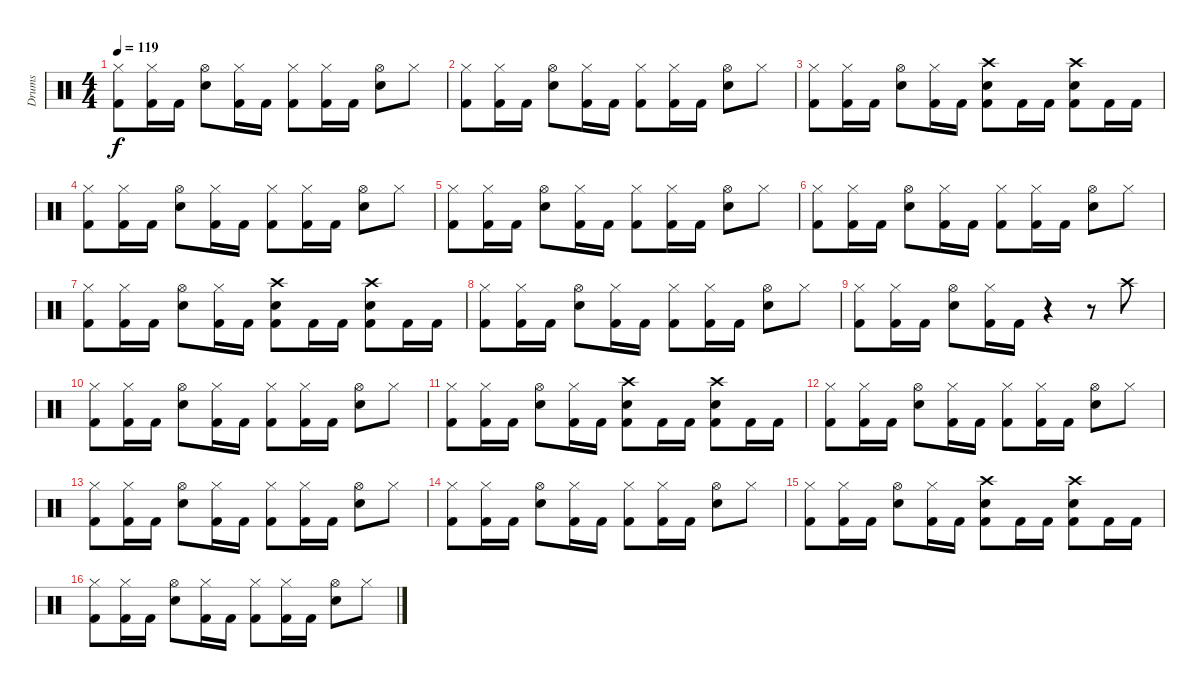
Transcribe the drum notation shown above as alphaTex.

\track ("Drums" "Drums") {instrument percussion}
\staff {score}
\articulation defaults
\ts (4 4)
\tempo 119
\clef neutral
\ks c
("Hi-Hat (closed)" "Kick (hit) 2").8{dy f} ("Hi-Hat (closed)" "Kick (hit) 2").16 "Kick (hit) 2".16 ("Hi-Hat (open)" "Snare (hit) 2").8 ("Hi-Hat (closed)" "Kick (hit) 2").16 "Kick (hit) 2".16 ("Hi-Hat (closed)" "Kick (hit) 2").8 ("Hi-Hat (closed)" "Kick (hit) 2").16 "Kick (hit) 2".16 ("Hi-Hat (open)" "Snare (hit) 2").8 "Hi-Hat (closed)".8 |
("Hi-Hat (closed)" "Kick (hit) 2").8 ("Hi-Hat (closed)" "Kick (hit) 2").16 "Kick (hit) 2".16 ("Hi-Hat (open)" "Snare (hit) 2").8 ("Hi-Hat (closed)" "Kick (hit) 2").16 "Kick (hit) 2".16 ("Hi-Hat (closed)" "Kick (hit) 2").8 ("Hi-Hat (closed)" "Kick (hit) 2").16 "Kick (hit) 2".16 ("Hi-Hat (open)" "Snare (hit) 2").8 "Hi-Hat (closed)".8 |
("Hi-Hat (closed)" "Kick (hit) 2").8 ("Hi-Hat (closed)" "Kick (hit) 2").16 "Kick (hit) 2".16 ("Hi-Hat (open)" "Snare (hit) 2").8 ("Hi-Hat (closed)" "Kick (hit) 2").16 "Kick (hit) 2".16 ("Crash high (hit)" "Kick (hit) 2" "Snare (hit) 2").8 "Kick (hit) 2".16 "Kick (hit) 2".16 ("Crash high (hit)" "Kick (hit) 2" "Snare (hit) 2").8 "Kick (hit) 2".16 "Kick (hit) 2".16 |
("Hi-Hat (closed)" "Kick (hit) 2").8 ("Hi-Hat (closed)" "Kick (hit) 2").16 "Kick (hit) 2".16 ("Hi-Hat (open)" "Snare (hit) 2").8 ("Hi-Hat (closed)" "Kick (hit) 2").16 "Kick (hit) 2".16 ("Hi-Hat (closed)" "Kick (hit) 2").8 ("Hi-Hat (closed)" "Kick (hit) 2").16 "Kick (hit) 2".16 ("Hi-Hat (open)" "Snare (hit) 2").8 "Hi-Hat (closed)".8 |
("Hi-Hat (closed)" "Kick (hit) 2").8 ("Hi-Hat (closed)" "Kick (hit) 2").16 "Kick (hit) 2".16 ("Hi-Hat (open)" "Snare (hit) 2").8 ("Hi-Hat (closed)" "Kick (hit) 2").16 "Kick (hit) 2".16 ("Hi-Hat (closed)" "Kick (hit) 2").8 ("Hi-Hat (closed)" "Kick (hit) 2").16 "Kick (hit) 2".16 ("Hi-Hat (open)" "Snare (hit) 2").8 "Hi-Hat (closed)".8 |
("Hi-Hat (closed)" "Kick (hit) 2").8 ("Hi-Hat (closed)" "Kick (hit) 2").16 "Kick (hit) 2".16 ("Hi-Hat (open)" "Snare (hit) 2").8 ("Hi-Hat (closed)" "Kick (hit) 2").16 "Kick (hit) 2".16 ("Hi-Hat (closed)" "Kick (hit) 2").8 ("Hi-Hat (closed)" "Kick (hit) 2").16 "Kick (hit) 2".16 ("Hi-Hat (open)" "Snare (hit) 2").8 "Hi-Hat (closed)".8 |
("Hi-Hat (closed)" "Kick (hit) 2").8 ("Hi-Hat (closed)" "Kick (hit) 2").16 "Kick (hit) 2".16 ("Hi-Hat (open)" "Snare (hit) 2").8 ("Hi-Hat (closed)" "Kick (hit) 2").16 "Kick (hit) 2".16 ("Crash high (hit)" "Kick (hit) 2" "Snare (hit) 2").8 "Kick (hit) 2".16 "Kick (hit) 2".16 ("Crash high (hit)" "Kick (hit) 2" "Snare (hit) 2").8 "Kick (hit) 2".16 "Kick (hit) 2".16 |
("Hi-Hat (closed)" "Kick (hit) 2").8 ("Hi-Hat (closed)" "Kick (hit) 2").16 "Kick (hit) 2".16 ("Hi-Hat (open)" "Snare (hit) 2").8 ("Hi-Hat (closed)" "Kick (hit) 2").16 "Kick (hit) 2".16 ("Hi-Hat (closed)" "Kick (hit) 2").8 ("Hi-Hat (closed)" "Kick (hit) 2").16 "Kick (hit) 2".16 ("Hi-Hat (open)" "Snare (hit) 2").8 "Hi-Hat (closed)".8 |
("Hi-Hat (closed)" "Kick (hit) 2").8 ("Hi-Hat (closed)" "Kick (hit) 2").16 "Kick (hit) 2".16 ("Hi-Hat (open)" "Snare (hit) 2").8 ("Hi-Hat (closed)" "Kick (hit) 2").16 "Kick (hit) 2".16 r.4 r.8 "Crash high (hit)".8 |
("Hi-Hat (closed)" "Kick (hit) 2").8 ("Hi-Hat (closed)" "Kick (hit) 2").16 "Kick (hit) 2".16 ("Hi-Hat (open)" "Snare (hit) 2").8 ("Hi-Hat (closed)" "Kick (hit) 2").16 "Kick (hit) 2".16 ("Hi-Hat (closed)" "Kick (hit) 2").8 ("Hi-Hat (closed)" "Kick (hit) 2").16 "Kick (hit) 2".16 ("Hi-Hat (open)" "Snare (hit) 2").8 "Hi-Hat (closed)".8 |
("Hi-Hat (closed)" "Kick (hit) 2").8 ("Hi-Hat (closed)" "Kick (hit) 2").16 "Kick (hit) 2".16 ("Hi-Hat (open)" "Snare (hit) 2").8 ("Hi-Hat (closed)" "Kick (hit) 2").16 "Kick (hit) 2".16 ("Crash high (hit)" "Kick (hit) 2" "Snare (hit) 2").8 "Kick (hit) 2".16 "Kick (hit) 2".16 ("Crash high (hit)" "Kick (hit) 2" "Snare (hit) 2").8 "Kick (hit) 2".16 "Kick (hit) 2".16 |
("Hi-Hat (closed)" "Kick (hit) 2").8 ("Hi-Hat (closed)" "Kick (hit) 2").16 "Kick (hit) 2".16 ("Hi-Hat (open)" "Snare (hit) 2").8 ("Hi-Hat (closed)" "Kick (hit) 2").16 "Kick (hit) 2".16 ("Hi-Hat (closed)" "Kick (hit) 2").8 ("Hi-Hat (closed)" "Kick (hit) 2").16 "Kick (hit) 2".16 ("Hi-Hat (open)" "Snare (hit) 2").8 "Hi-Hat (closed)".8 |
("Hi-Hat (closed)" "Kick (hit) 2").8 ("Hi-Hat (closed)" "Kick (hit) 2").16 "Kick (hit) 2".16 ("Hi-Hat (open)" "Snare (hit) 2").8 ("Hi-Hat (closed)" "Kick (hit) 2").16 "Kick (hit) 2".16 ("Hi-Hat (closed)" "Kick (hit) 2").8 ("Hi-Hat (closed)" "Kick (hit) 2").16 "Kick (hit) 2".16 ("Hi-Hat (open)" "Snare (hit) 2").8 "Hi-Hat (closed)".8 |
("Hi-Hat (closed)" "Kick (hit) 2").8 ("Hi-Hat (closed)" "Kick (hit) 2").16 "Kick (hit) 2".16 ("Hi-Hat (open)" "Snare (hit) 2").8 ("Hi-Hat (closed)" "Kick (hit) 2").16 "Kick (hit) 2".16 ("Hi-Hat (closed)" "Kick (hit) 2").8 ("Hi-Hat (closed)" "Kick (hit) 2").16 "Kick (hit) 2".16 ("Hi-Hat (open)" "Snare (hit) 2").8 "Hi-Hat (closed)".8 |
("Hi-Hat (closed)" "Kick (hit) 2").8 ("Hi-Hat (closed)" "Kick (hit) 2").16 "Kick (hit) 2".16 ("Hi-Hat (open)" "Snare (hit) 2").8 ("Hi-Hat (closed)" "Kick (hit) 2").16 "Kick (hit) 2".16 ("Crash high (hit)" "Kick (hit) 2" "Snare (hit) 2").8 "Kick (hit) 2".16 "Kick (hit) 2".16 ("Crash high (hit)" "Kick (hit) 2" "Snare (hit) 2").8 "Kick (hit) 2".16 "Kick (hit) 2".16 |
("Hi-Hat (closed)" "Kick (hit) 2").8 ("Hi-Hat (closed)" "Kick (hit) 2").16 "Kick (hit) 2".16 ("Hi-Hat (open)" "Snare (hit) 2").8 ("Hi-Hat (closed)" "Kick (hit) 2").16 "Kick (hit) 2".16 ("Hi-Hat (closed)" "Kick (hit) 2").8 ("Hi-Hat (closed)" "Kick (hit) 2").16 "Kick (hit) 2".16 ("Hi-Hat (open)" "Snare (hit) 2").8 "Hi-Hat (closed)".8
